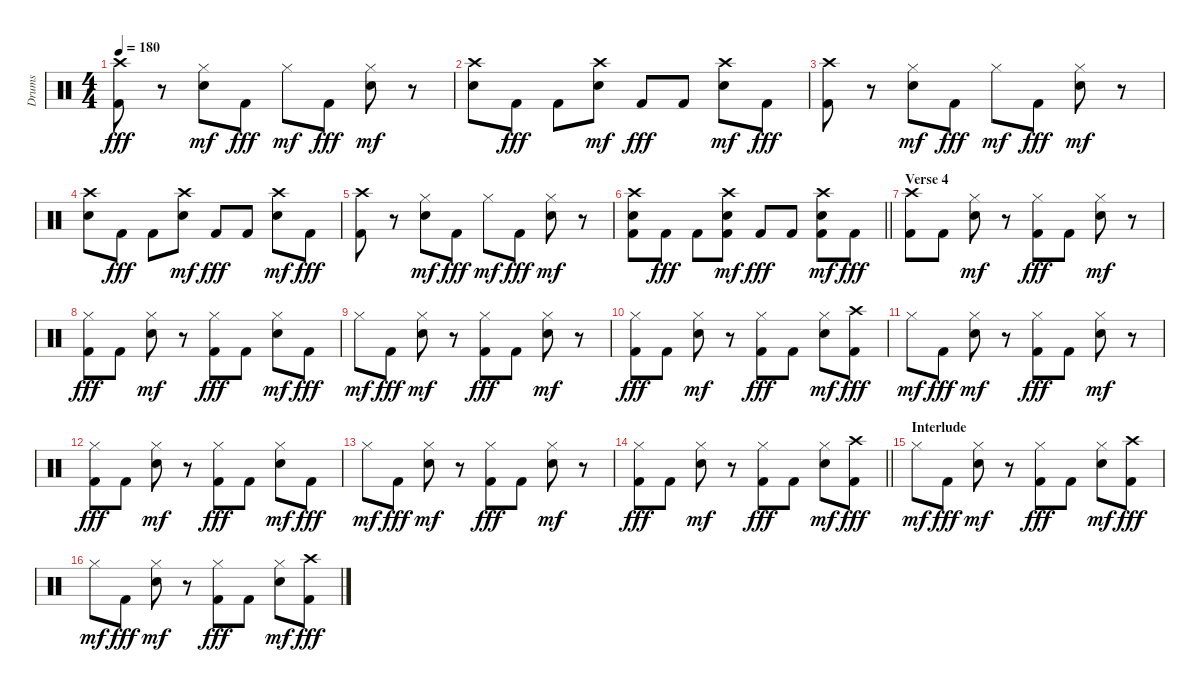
\track ("Drums" "Drums") {instrument percussion}
\staff {score}
\articulation defaults
\ts (4 4)
\tempo 180
\clef neutral
\ks c
("Crash high (hit)" "Kick (hit) 2").8{dy fff} r.8 ("Hi-Hat (closed)" "Electric Snare (hit)").8{dy mf} "Kick (hit) 2".8{dy fff} "Hi-Hat (closed)".8{dy mf} "Kick (hit) 2".8{dy fff} ("Hi-Hat (closed)" "Electric Snare (hit)").8{dy mf} r.8 |
("Crash high (hit)" "Electric Snare (hit)").8 "Kick (hit) 2".8{dy fff} "Kick (hit) 2".8 ("Crash high (hit)" "Electric Snare (hit)").8{dy mf} "Kick (hit) 2".8{dy fff} "Kick (hit) 2".8 ("Crash high (hit)" "Electric Snare (hit)").8{dy mf} "Kick (hit) 2".8{dy fff} |
("Crash high (hit)" "Kick (hit) 2").8 r.8 ("Hi-Hat (closed)" "Electric Snare (hit)").8{dy mf} "Kick (hit) 2".8{dy fff} "Hi-Hat (closed)".8{dy mf} "Kick (hit) 2".8{dy fff} ("Hi-Hat (closed)" "Electric Snare (hit)").8{dy mf} r.8 |
("Crash high (hit)" "Electric Snare (hit)").8 "Kick (hit) 2".8{dy fff} "Kick (hit) 2".8 ("Crash high (hit)" "Electric Snare (hit)").8{dy mf} "Kick (hit) 2".8{dy fff} "Kick (hit) 2".8 ("Crash high (hit)" "Electric Snare (hit)").8{dy mf} "Kick (hit) 2".8{dy fff} |
("Crash high (hit)" "Kick (hit) 2").8 r.8 ("Hi-Hat (closed)" "Electric Snare (hit)").8{dy mf} "Kick (hit) 2".8{dy fff} "Hi-Hat (closed)".8{dy mf} "Kick (hit) 2".8{dy fff} ("Hi-Hat (closed)" "Electric Snare (hit)").8{dy mf} r.8 |
\barLineRight lightlight
("Kick (hit) 2" "Electric Snare (hit)" "Crash high (hit)").8 "Kick (hit) 2".8{dy fff} "Kick (hit) 2".8 ("Kick (hit) 2" "Electric Snare (hit)" "Crash high (hit)").8{dy mf} "Kick (hit) 2".8{dy fff} "Kick (hit) 2".8 ("Kick (hit) 2" "Electric Snare (hit)" "Crash high (hit)").8{dy mf} "Kick (hit) 2".8{dy fff} |
\section ("" "Verse 4")
("Crash high (hit)" "Kick (hit) 2").8 "Kick (hit) 2".8 ("Hi-Hat (closed)" "Electric Snare (hit)").8{dy mf} r.8 ("Hi-Hat (closed)" "Kick (hit) 2").8{dy fff} "Kick (hit) 2".8 ("Hi-Hat (closed)" "Electric Snare (hit)").8{dy mf} r.8 |
("Hi-Hat (closed)" "Kick (hit) 2").8{dy fff} "Kick (hit) 2".8 ("Hi-Hat (closed)" "Electric Snare (hit)").8{dy mf} r.8 ("Hi-Hat (closed)" "Kick (hit) 2").8{dy fff} "Kick (hit) 2".8 ("Hi-Hat (closed)" "Electric Snare (hit)").8{dy mf} "Kick (hit) 2".8{dy fff} |
"Hi-Hat (closed)".8{dy mf} "Kick (hit) 2".8{dy fff} ("Hi-Hat (closed)" "Electric Snare (hit)").8{dy mf} r.8 ("Hi-Hat (closed)" "Kick (hit) 2").8{dy fff} "Kick (hit) 2".8 ("Hi-Hat (closed)" "Electric Snare (hit)").8{dy mf} r.8 |
("Hi-Hat (closed)" "Kick (hit) 2").8{dy fff} "Kick (hit) 2".8 ("Hi-Hat (closed)" "Electric Snare (hit)").8{dy mf} r.8 ("Hi-Hat (closed)" "Kick (hit) 2").8{dy fff} "Kick (hit) 2".8 ("Hi-Hat (closed)" "Electric Snare (hit)").8{dy mf} ("Crash high (hit)" "Kick (hit) 2").8{dy fff} |
"Hi-Hat (closed)".8{dy mf} "Kick (hit) 2".8{dy fff} ("Hi-Hat (closed)" "Electric Snare (hit)").8{dy mf} r.8 ("Hi-Hat (closed)" "Kick (hit) 2").8{dy fff} "Kick (hit) 2".8 ("Hi-Hat (closed)" "Electric Snare (hit)").8{dy mf} r.8 |
("Hi-Hat (closed)" "Kick (hit) 2").8{dy fff} "Kick (hit) 2".8 ("Hi-Hat (closed)" "Electric Snare (hit)").8{dy mf} r.8 ("Hi-Hat (closed)" "Kick (hit) 2").8{dy fff} "Kick (hit) 2".8 ("Hi-Hat (closed)" "Electric Snare (hit)").8{dy mf} "Kick (hit) 2".8{dy fff} |
"Hi-Hat (closed)".8{dy mf} "Kick (hit) 2".8{dy fff} ("Hi-Hat (closed)" "Electric Snare (hit)").8{dy mf} r.8 ("Hi-Hat (closed)" "Kick (hit) 2").8{dy fff} "Kick (hit) 2".8 ("Hi-Hat (closed)" "Electric Snare (hit)").8{dy mf} r.8 |
\barLineRight lightlight
("Hi-Hat (closed)" "Kick (hit) 2").8{dy fff} "Kick (hit) 2".8 ("Hi-Hat (closed)" "Electric Snare (hit)").8{dy mf} r.8 ("Hi-Hat (closed)" "Kick (hit) 2").8{dy fff} "Kick (hit) 2".8 ("Hi-Hat (closed)" "Electric Snare (hit)").8{dy mf} ("Crash high (hit)" "Kick (hit) 2").8{dy fff} |
\section ("" "Interlude")
"Hi-Hat (closed)".8{dy mf} "Kick (hit) 2".8{dy fff} ("Hi-Hat (closed)" "Electric Snare (hit)").8{dy mf} r.8 ("Hi-Hat (closed)" "Kick (hit) 2").8{dy fff} "Kick (hit) 2".8 ("Hi-Hat (closed)" "Electric Snare (hit)").8{dy mf} ("Crash high (hit)" "Kick (hit) 2").8{dy fff} |
"Hi-Hat (closed)".8{dy mf} "Kick (hit) 2".8{dy fff} ("Hi-Hat (closed)" "Electric Snare (hit)").8{dy mf} r.8 ("Hi-Hat (closed)" "Kick (hit) 2").8{dy fff} "Kick (hit) 2".8 ("Hi-Hat (closed)" "Electric Snare (hit)").8{dy mf} ("Crash high (hit)" "Kick (hit) 2").8{dy fff}
